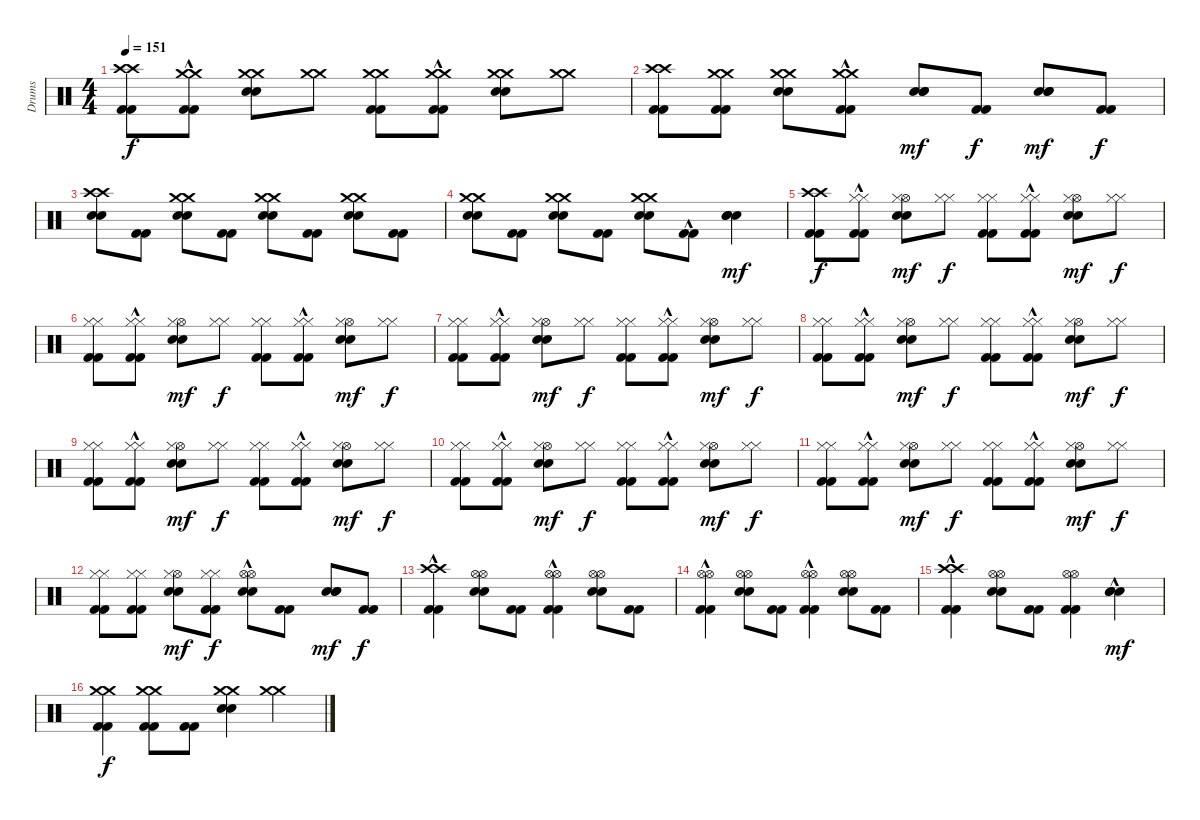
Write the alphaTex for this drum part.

\track ("Drums" "Drums") {instrument percussion}
\staff {score}
\articulation defaults
\ts (4 4)
\tempo 151
\clef neutral
\ks c
("Kick (hit) 2" "Kick (hit) 2" "Crash high (hit)" "Crash high (hit)").8{dy f} ("Kick (hit) 2"{hac} "Kick (hit) 2"{hac} "Crash medium (hit)" "Crash medium (hit)").8 ("Electric Snare (hit)" "Electric Snare (hit)" "Crash medium (hit)" "Crash medium (hit)").8 ("Crash medium (hit)" "Crash medium (hit)").8 ("Kick (hit) 2" "Kick (hit) 2" "Crash medium (hit)" "Crash medium (hit)").8 ("Kick (hit) 2"{hac} "Kick (hit) 2"{hac} "Crash medium (hit)" "Crash medium (hit)").8 ("Electric Snare (hit)" "Electric Snare (hit)" "Crash medium (hit)" "Crash medium (hit)").8 ("Crash medium (hit)" "Crash medium (hit)").8 |
("Kick (hit) 2" "Kick (hit) 2" "Crash high (hit)" "Crash high (hit)").8 ("Kick (hit) 2" "Kick (hit) 2" "Crash medium (hit)" "Crash medium (hit)").8 ("Electric Snare (hit)" "Electric Snare (hit)" "Crash medium (hit)" "Crash medium (hit)").8 ("Kick (hit) 2" "Kick (hit) 2" "Crash medium (hit)"{hac} "Crash medium (hit)"{hac}).8 ("Electric Snare (hit)" "Electric Snare (hit)" "Electric Snare (hit)").8{dy mf} ("Kick (hit) 2" "Kick (hit) 2").8{dy f} ("Electric Snare (hit)" "Electric Snare (hit)" "Electric Snare (hit)").8{dy mf} ("Kick (hit) 2" "Kick (hit) 2").8{dy f} |
("Electric Snare (hit)" "Electric Snare (hit)" "Crash high (hit)" "Crash high (hit)").8 ("Kick (hit) 2" "Kick (hit) 2").8 ("Electric Snare (hit)" "Electric Snare (hit)" "Crash medium (hit)" "Crash medium (hit)").8 ("Kick (hit) 2" "Kick (hit) 2").8 ("Electric Snare (hit)" "Electric Snare (hit)" "Crash medium (hit)" "Crash medium (hit)").8 ("Kick (hit) 2" "Kick (hit) 2").8 ("Electric Snare (hit)" "Electric Snare (hit)" "Crash medium (hit)" "Crash medium (hit)").8 ("Kick (hit) 2" "Kick (hit) 2").8 |
("Electric Snare (hit)" "Electric Snare (hit)" "Crash medium (hit)" "Crash medium (hit)").8 ("Kick (hit) 2" "Kick (hit) 2").8 ("Electric Snare (hit)" "Electric Snare (hit)" "Crash medium (hit)" "Crash medium (hit)").8 ("Kick (hit) 2" "Kick (hit) 2").8 ("Electric Snare (hit)" "Electric Snare (hit)" "Crash medium (hit)" "Crash medium (hit)").8 ("Kick (hit) 2"{hac} "Kick (hit) 2"{hac}).8 ("Electric Snare (hit)" "Electric Snare (hit)" "Electric Snare (hit)").4{dy mf} |
("Kick (hit) 2" "Kick (hit) 2" "Crash high (hit)" "Crash high (hit)").8{dy f} ("Kick (hit) 2"{hac} "Kick (hit) 2"{hac} "Hi-Hat (closed)" "Hi-Hat (closed)").8 ("Electric Snare (hit)" "Electric Snare (hit)" "Hi-Hat (open)" "Hi-Hat (closed)").8{dy mf} ("Hi-Hat (closed)" "Hi-Hat (closed)").8{dy f} ("Kick (hit) 2" "Kick (hit) 2" "Hi-Hat (closed)" "Hi-Hat (closed)").8 ("Kick (hit) 2"{hac} "Kick (hit) 2"{hac} "Hi-Hat (closed)" "Hi-Hat (closed)").8 ("Electric Snare (hit)" "Electric Snare (hit)" "Hi-Hat (open)" "Hi-Hat (closed)").8{dy mf} ("Hi-Hat (closed)" "Hi-Hat (closed)").8{dy f} |
("Kick (hit) 2" "Kick (hit) 2" "Hi-Hat (closed)" "Hi-Hat (closed)").8 ("Kick (hit) 2"{hac} "Kick (hit) 2"{hac} "Hi-Hat (closed)" "Hi-Hat (closed)").8 ("Electric Snare (hit)" "Electric Snare (hit)" "Hi-Hat (open)" "Hi-Hat (closed)").8{dy mf} ("Hi-Hat (closed)" "Hi-Hat (closed)").8{dy f} ("Kick (hit) 2" "Kick (hit) 2" "Hi-Hat (closed)" "Hi-Hat (closed)").8 ("Kick (hit) 2"{hac} "Kick (hit) 2"{hac} "Hi-Hat (closed)" "Hi-Hat (closed)").8 ("Electric Snare (hit)" "Electric Snare (hit)" "Hi-Hat (open)" "Hi-Hat (closed)").8{dy mf} ("Hi-Hat (closed)" "Hi-Hat (closed)").8{dy f} |
("Kick (hit) 2" "Kick (hit) 2" "Hi-Hat (closed)" "Hi-Hat (closed)").8 ("Kick (hit) 2"{hac} "Kick (hit) 2"{hac} "Hi-Hat (closed)" "Hi-Hat (closed)").8 ("Electric Snare (hit)" "Electric Snare (hit)" "Hi-Hat (open)" "Hi-Hat (closed)").8{dy mf} ("Hi-Hat (closed)" "Hi-Hat (closed)").8{dy f} ("Kick (hit) 2" "Kick (hit) 2" "Hi-Hat (closed)" "Hi-Hat (closed)").8 ("Kick (hit) 2"{hac} "Kick (hit) 2"{hac} "Hi-Hat (closed)" "Hi-Hat (closed)").8 ("Electric Snare (hit)" "Electric Snare (hit)" "Hi-Hat (open)" "Hi-Hat (closed)").8{dy mf} ("Hi-Hat (closed)" "Hi-Hat (closed)").8{dy f} |
("Kick (hit) 2" "Kick (hit) 2" "Hi-Hat (closed)" "Hi-Hat (closed)").8 ("Kick (hit) 2"{hac} "Kick (hit) 2"{hac} "Hi-Hat (closed)" "Hi-Hat (closed)").8 ("Electric Snare (hit)" "Electric Snare (hit)" "Hi-Hat (open)" "Hi-Hat (closed)").8{dy mf} ("Hi-Hat (closed)" "Hi-Hat (closed)").8{dy f} ("Kick (hit) 2" "Kick (hit) 2" "Hi-Hat (closed)" "Hi-Hat (closed)").8 ("Kick (hit) 2"{hac} "Kick (hit) 2"{hac} "Hi-Hat (closed)" "Hi-Hat (closed)").8 ("Electric Snare (hit)" "Electric Snare (hit)" "Hi-Hat (open)" "Hi-Hat (closed)").8{dy mf} ("Hi-Hat (closed)" "Hi-Hat (closed)").8{dy f} |
("Kick (hit) 2" "Kick (hit) 2" "Hi-Hat (closed)" "Hi-Hat (closed)").8 ("Kick (hit) 2"{hac} "Kick (hit) 2"{hac} "Hi-Hat (closed)" "Hi-Hat (closed)").8 ("Electric Snare (hit)" "Electric Snare (hit)" "Hi-Hat (open)" "Hi-Hat (closed)").8{dy mf} ("Hi-Hat (closed)" "Hi-Hat (closed)").8{dy f} ("Kick (hit) 2" "Kick (hit) 2" "Hi-Hat (closed)" "Hi-Hat (closed)").8 ("Kick (hit) 2"{hac} "Kick (hit) 2"{hac} "Hi-Hat (closed)" "Hi-Hat (closed)").8 ("Electric Snare (hit)" "Electric Snare (hit)" "Hi-Hat (open)" "Hi-Hat (closed)").8{dy mf} ("Hi-Hat (closed)" "Hi-Hat (closed)").8{dy f} |
("Kick (hit) 2" "Kick (hit) 2" "Hi-Hat (closed)" "Hi-Hat (closed)").8 ("Kick (hit) 2"{hac} "Kick (hit) 2"{hac} "Hi-Hat (closed)" "Hi-Hat (closed)").8 ("Electric Snare (hit)" "Electric Snare (hit)" "Hi-Hat (open)" "Hi-Hat (closed)").8{dy mf} ("Hi-Hat (closed)" "Hi-Hat (closed)").8{dy f} ("Kick (hit) 2" "Kick (hit) 2" "Hi-Hat (closed)" "Hi-Hat (closed)").8 ("Kick (hit) 2"{hac} "Kick (hit) 2"{hac} "Hi-Hat (closed)" "Hi-Hat (closed)").8 ("Electric Snare (hit)" "Electric Snare (hit)" "Hi-Hat (open)" "Hi-Hat (closed)").8{dy mf} ("Hi-Hat (closed)" "Hi-Hat (closed)").8{dy f} |
("Kick (hit) 2" "Kick (hit) 2" "Hi-Hat (closed)" "Hi-Hat (closed)").8 ("Kick (hit) 2"{hac} "Kick (hit) 2"{hac} "Hi-Hat (closed)" "Hi-Hat (closed)").8 ("Electric Snare (hit)" "Electric Snare (hit)" "Hi-Hat (open)" "Hi-Hat (closed)").8{dy mf} ("Hi-Hat (closed)" "Hi-Hat (closed)").8{dy f} ("Kick (hit) 2" "Kick (hit) 2" "Hi-Hat (closed)" "Hi-Hat (closed)").8 ("Kick (hit) 2"{hac} "Kick (hit) 2"{hac} "Hi-Hat (closed)" "Hi-Hat (closed)").8 ("Electric Snare (hit)" "Electric Snare (hit)" "Hi-Hat (open)" "Hi-Hat (closed)").8{dy mf} ("Hi-Hat (closed)" "Hi-Hat (closed)").8{dy f} |
("Kick (hit) 2" "Kick (hit) 2" "Hi-Hat (closed)" "Hi-Hat (closed)").8 ("Kick (hit) 2" "Kick (hit) 2" "Hi-Hat (closed)" "Hi-Hat (closed)").8 ("Electric Snare (hit)" "Electric Snare (hit)" "Hi-Hat (open)" "Hi-Hat (closed)").8{dy mf} ("Kick (hit) 2" "Kick (hit) 2" "Hi-Hat (closed)" "Hi-Hat (closed)").8{dy f} ("Electric Snare (hit)" "Electric Snare (hit)" "Hi-Hat (open)"{hac} "Hi-Hat (open)"{hac}).8 ("Kick (hit) 2" "Kick (hit) 2").8 ("Electric Snare (hit)" "Electric Snare (hit)" "Electric Snare (hit)").8{dy mf} ("Kick (hit) 2" "Kick (hit) 2").8{dy f} |
("Kick (hit) 2"{hac} "Kick (hit) 2"{hac} "Crash high (hit)" "Crash high (hit)").4 ("Electric Snare (hit)" "Electric Snare (hit)" "Hi-Hat (open)" "Hi-Hat (open)").8 ("Kick (hit) 2" "Kick (hit) 2").8 ("Kick (hit) 2"{hac} "Kick (hit) 2"{hac} "Hi-Hat (open)" "Hi-Hat (open)").4 ("Electric Snare (hit)" "Electric Snare (hit)" "Hi-Hat (open)" "Hi-Hat (open)").8 ("Kick (hit) 2" "Kick (hit) 2").8 |
("Kick (hit) 2"{hac} "Kick (hit) 2"{hac} "Hi-Hat (open)" "Hi-Hat (open)").4 ("Electric Snare (hit)" "Electric Snare (hit)" "Hi-Hat (open)" "Hi-Hat (open)").8 ("Kick (hit) 2" "Kick (hit) 2").8 ("Kick (hit) 2"{hac} "Kick (hit) 2"{hac} "Hi-Hat (open)" "Hi-Hat (open)").4 ("Electric Snare (hit)" "Electric Snare (hit)" "Hi-Hat (open)" "Hi-Hat (open)").8 ("Kick (hit) 2" "Kick (hit) 2").8 |
("Kick (hit) 2"{hac} "Kick (hit) 2"{hac} "Crash high (hit)" "Crash high (hit)").4 ("Electric Snare (hit)" "Electric Snare (hit)" "Hi-Hat (open)" "Hi-Hat (open)").8 ("Kick (hit) 2" "Kick (hit) 2").8 ("Kick (hit) 2" "Kick (hit) 2" "Hi-Hat (open)" "Hi-Hat (open)").4 ("Electric Snare (hit)"{hac} "Electric Snare (hit)"{hac} "Electric Snare (hit)"{hac}).4{dy mf} |
("Kick (hit) 2" "Kick (hit) 2" "Crash medium (hit)" "Crash medium (hit)").4{dy f} ("Kick (hit) 2" "Kick (hit) 2" "Crash medium (hit)" "Crash medium (hit)").8 ("Kick (hit) 2" "Kick (hit) 2").8 ("Electric Snare (hit)" "Electric Snare (hit)" "Crash medium (hit)" "Crash medium (hit)").4 ("Crash medium (hit)" "Crash medium (hit)").4
